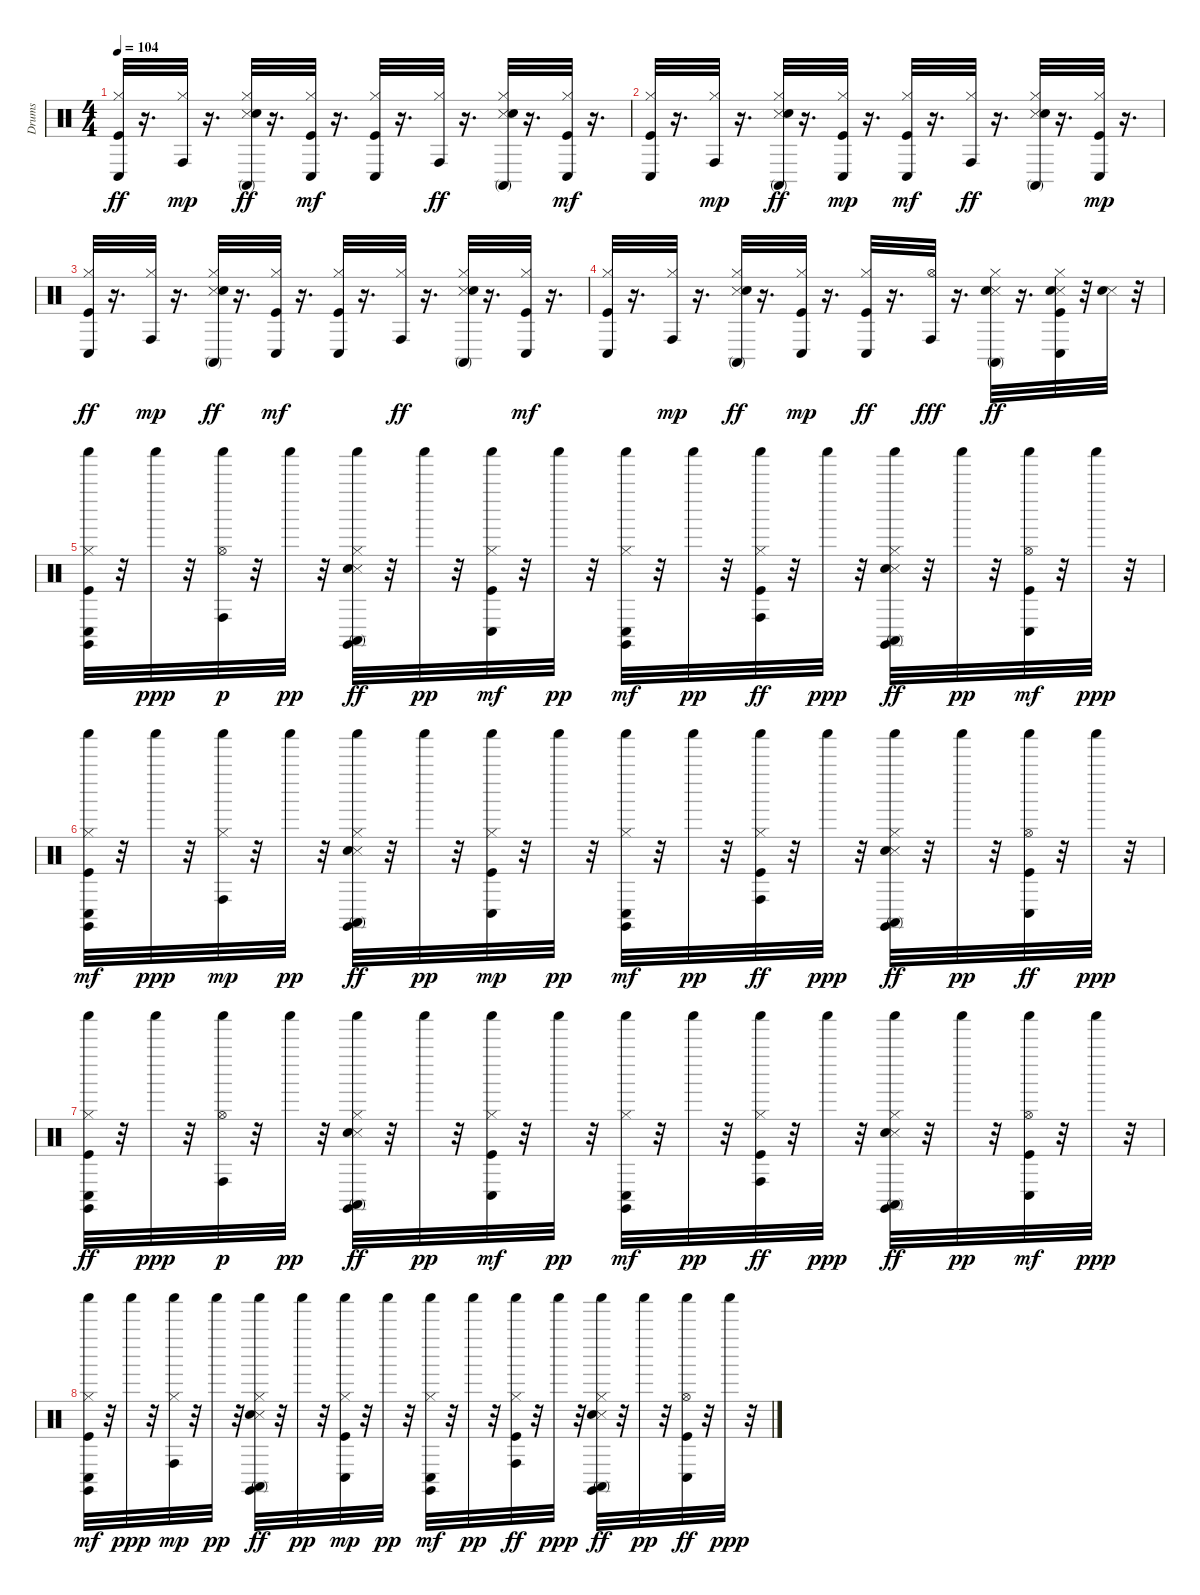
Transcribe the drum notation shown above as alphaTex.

\track ("Drums" "Drums") {instrument percussion}
\staff {score}
\articulation defaults
\ts (4 4)
\tempo 104
\clef neutral
\ks c
("Kick (hit)" "Hi-Hat (closed)" "Conga low (hit)").32{dy ff} r.16{d} ("Hi-Hat (closed)" "Conga high (hit)").32{dy mp} r.16{d} ("Snare (side stick) 3" "Hi-Hat (closed)" "Conga high (mute)" "Snare (hit) 2").32{dy ff} r.16{d} ("Kick (hit)" "Hi-Hat (closed)" "Conga low (hit)").32{dy mf} r.16{d} ("Kick (hit)" "Hi-Hat (closed)" "Conga low (hit)").32 r.16{d} ("Hi-Hat (closed)" "Conga high (hit)").32{dy ff} r.16{d} ("Snare (side stick) 3" "Hi-Hat (closed)" "Conga high (mute)" "Snare (hit) 2").32 r.16{d} ("Kick (hit)" "Hi-Hat (closed)" "Conga low (hit)").32{dy mf} r.16{d} |
("Kick (hit)" "Hi-Hat (closed)" "Conga low (hit)").32 r.16{d} ("Hi-Hat (closed)" "Conga high (hit)").32{dy mp} r.16{d} ("Snare (side stick) 3" "Hi-Hat (closed)" "Conga high (mute)" "Snare (hit) 2").32{dy ff} r.16{d} ("Kick (hit)" "Hi-Hat (closed)" "Conga low (hit)").32{dy mp} r.16{d} ("Kick (hit)" "Hi-Hat (closed)" "Conga low (hit)").32{dy mf} r.16{d} ("Hi-Hat (closed)" "Conga high (hit)").32{dy ff} r.16{d} ("Snare (side stick) 3" "Hi-Hat (closed)" "Conga high (mute)" "Snare (hit) 2").32 r.16{d} ("Kick (hit)" "Hi-Hat (closed)" "Conga low (hit)").32{dy mp} r.16{d} |
("Kick (hit)" "Hi-Hat (closed)" "Conga low (hit)").32{dy ff} r.16{d} ("Hi-Hat (closed)" "Conga high (hit)").32{dy mp} r.16{d} ("Snare (side stick) 3" "Hi-Hat (closed)" "Conga high (mute)" "Snare (hit) 2").32{dy ff} r.16{d} ("Kick (hit)" "Hi-Hat (closed)" "Conga low (hit)").32{dy mf} r.16{d} ("Kick (hit)" "Hi-Hat (closed)" "Conga low (hit)").32 r.16{d} ("Hi-Hat (closed)" "Conga high (hit)").32{dy ff} r.16{d} ("Snare (side stick) 3" "Hi-Hat (closed)" "Conga high (mute)" "Snare (hit) 2").32 r.16{d} ("Kick (hit)" "Hi-Hat (closed)" "Conga low (hit)").32{dy mf} r.16{d} |
("Kick (hit)" "Hi-Hat (closed)" "Conga low (hit)").32 r.16{d} ("Hi-Hat (closed)" "Conga high (hit)").32{dy mp} r.16{d} ("Snare (side stick) 3" "Hi-Hat (closed)" "Conga high (mute)" "Snare (hit) 2").32{dy ff} r.16{d} ("Kick (hit)" "Hi-Hat (closed)" "Conga low (hit)").32{dy mp} r.16{d} ("Kick (hit)" "Hi-Hat (closed)" "Conga low (hit)").32{dy ff} r.16{d} ("Hi-Hat (open)" "Conga high (hit)").32{dy fff} r.16{d} ("Snare (side stick) 3" "Hi-Hat (closed)" "Conga high (mute)" "Snare (hit) 2").32{dy ff} r.16{d} ("Snare (side stick) 3" "Kick (hit)" "Hi-Hat (closed)" "Conga low (hit)" "Snare (hit) 2").32 r.32 ("Snare (side stick) 3" "Snare (hit) 2").32 r.32 |
("Claves (hit)" "Shaker (hit)" "Kick (hit)" "Hi-Hat (closed)" "Conga low (hit)").32 r.32 "Shaker (hit)".32{dy ppp} r.32 ("Hi-Hat (open)" "Shaker (hit)" "Conga high (hit)").32{dy p} r.32 "Shaker (hit)".32{dy pp} r.32 ("Claves (hit)" "Shaker (hit)" "Snare (side stick) 3" "Hi-Hat (closed)" "Conga high (mute)" "Snare (hit) 2").32{dy ff} r.32 "Shaker (hit)".32{dy pp} r.32 ("Shaker (hit)" "Kick (hit)" "Hi-Hat (closed)" "Conga low (hit)").32{dy mf} r.32 "Shaker (hit)".32{dy pp} r.32 ("Claves (hit)" "Shaker (hit)" "Hi-Hat (closed)" "Conga low (hit)").32{dy mf} r.32 "Shaker (hit)".32{dy pp} r.32 ("Shaker (hit)" "Kick (hit)" "Hi-Hat (closed)" "Conga high (hit)").32{dy ff} r.32 "Shaker (hit)".32{dy ppp} r.32 ("Claves (hit)" "Shaker (hit)" "Snare (side stick) 3" "Hi-Hat (closed)" "Conga high (mute)" "Snare (hit) 2").32{dy ff} r.32 "Shaker (hit)".32{dy pp} r.32 ("Hi-Hat (open)" "Shaker (hit)" "Kick (hit)" "Conga low (hit)").32{dy mf} r.32 "Shaker (hit)".32{dy ppp} r.32 |
("Claves (hit)" "Shaker (hit)" "Kick (hit)" "Hi-Hat (closed)" "Conga low (hit)").32{dy mf} r.32 "Shaker (hit)".32{dy ppp} r.32 ("Shaker (hit)" "Hi-Hat (closed)" "Conga high (hit)").32{dy mp} r.32 "Shaker (hit)".32{dy pp} r.32 ("Claves (hit)" "Shaker (hit)" "Snare (side stick) 3" "Hi-Hat (closed)" "Conga high (mute)" "Snare (hit) 2").32{dy ff} r.32 "Shaker (hit)".32{dy pp} r.32 ("Shaker (hit)" "Kick (hit)" "Hi-Hat (closed)" "Conga low (hit)").32{dy mp} r.32 "Shaker (hit)".32{dy pp} r.32 ("Claves (hit)" "Shaker (hit)" "Hi-Hat (closed)" "Conga low (hit)").32{dy mf} r.32 "Shaker (hit)".32{dy pp} r.32 ("Shaker (hit)" "Kick (hit)" "Hi-Hat (closed)" "Conga high (hit)").32{dy ff} r.32 "Shaker (hit)".32{dy ppp} r.32 ("Claves (hit)" "Shaker (hit)" "Snare (side stick) 3" "Hi-Hat (closed)" "Conga high (mute)" "Snare (hit) 2").32{dy ff} r.32 "Shaker (hit)".32{dy pp} r.32 ("Hi-Hat (open)" "Shaker (hit)" "Kick (hit)" "Conga low (hit)").32{dy ff} r.32 "Shaker (hit)".32{dy ppp} r.32 |
("Claves (hit)" "Shaker (hit)" "Kick (hit)" "Hi-Hat (closed)" "Conga low (hit)").32{dy ff} r.32 "Shaker (hit)".32{dy ppp} r.32 ("Hi-Hat (open)" "Shaker (hit)" "Conga high (hit)").32{dy p} r.32 "Shaker (hit)".32{dy pp} r.32 ("Claves (hit)" "Shaker (hit)" "Snare (side stick) 3" "Hi-Hat (closed)" "Conga high (mute)" "Snare (hit) 2").32{dy ff} r.32 "Shaker (hit)".32{dy pp} r.32 ("Shaker (hit)" "Kick (hit)" "Hi-Hat (closed)" "Conga low (hit)").32{dy mf} r.32 "Shaker (hit)".32{dy pp} r.32 ("Claves (hit)" "Shaker (hit)" "Hi-Hat (closed)" "Conga low (hit)").32{dy mf} r.32 "Shaker (hit)".32{dy pp} r.32 ("Shaker (hit)" "Kick (hit)" "Hi-Hat (closed)" "Conga high (hit)").32{dy ff} r.32 "Shaker (hit)".32{dy ppp} r.32 ("Claves (hit)" "Shaker (hit)" "Snare (side stick) 3" "Hi-Hat (closed)" "Conga high (mute)" "Snare (hit) 2").32{dy ff} r.32 "Shaker (hit)".32{dy pp} r.32 ("Hi-Hat (open)" "Shaker (hit)" "Kick (hit)" "Conga low (hit)").32{dy mf} r.32 "Shaker (hit)".32{dy ppp} r.32 |
("Claves (hit)" "Shaker (hit)" "Kick (hit)" "Hi-Hat (closed)" "Conga low (hit)").32{dy mf} r.32 "Shaker (hit)".32{dy ppp} r.32 ("Shaker (hit)" "Hi-Hat (closed)" "Conga high (hit)").32{dy mp} r.32 "Shaker (hit)".32{dy pp} r.32 ("Claves (hit)" "Shaker (hit)" "Snare (side stick) 3" "Hi-Hat (closed)" "Conga high (mute)" "Snare (hit) 2").32{dy ff} r.32 "Shaker (hit)".32{dy pp} r.32 ("Shaker (hit)" "Kick (hit)" "Hi-Hat (closed)" "Conga low (hit)").32{dy mp} r.32 "Shaker (hit)".32{dy pp} r.32 ("Claves (hit)" "Shaker (hit)" "Hi-Hat (closed)" "Conga low (hit)").32{dy mf} r.32 "Shaker (hit)".32{dy pp} r.32 ("Shaker (hit)" "Kick (hit)" "Hi-Hat (closed)" "Conga high (hit)").32{dy ff} r.32 "Shaker (hit)".32{dy ppp} r.32 ("Claves (hit)" "Shaker (hit)" "Snare (side stick) 3" "Hi-Hat (closed)" "Conga high (mute)" "Snare (hit) 2").32{dy ff} r.32 "Shaker (hit)".32{dy pp} r.32 ("Hi-Hat (open)" "Shaker (hit)" "Kick (hit)" "Conga low (hit)").32{dy ff} r.32 "Shaker (hit)".32{dy ppp} r.32
